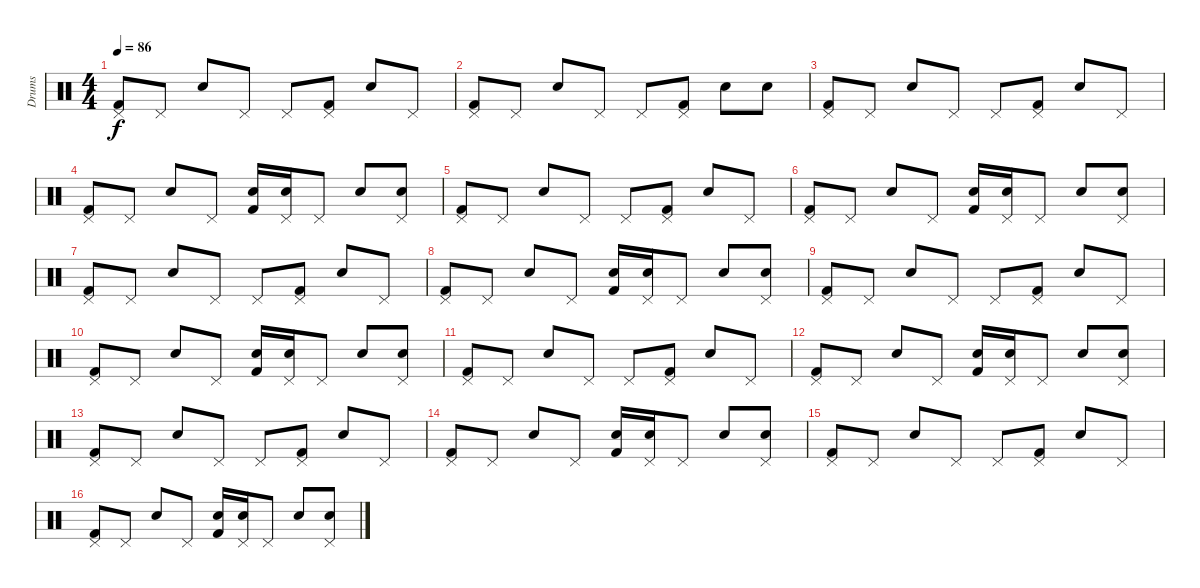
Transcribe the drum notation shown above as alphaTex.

\track ("Drums" "Drums") {instrument percussion}
\staff {score}
\articulation defaults
\ts (4 4)
\tempo 86
\clef neutral
\ks c
("Pedal Hi-Hat (hit)" "Kick (hit) 2").8{dy f} "Pedal Hi-Hat (hit)".8 "Snare (hit) 2".8 "Pedal Hi-Hat (hit)".8 "Pedal Hi-Hat (hit)".8 ("Pedal Hi-Hat (hit)" "Kick (hit) 2").8 "Snare (hit) 2".8 "Pedal Hi-Hat (hit)".8 |
("Pedal Hi-Hat (hit)" "Kick (hit) 2").8 "Pedal Hi-Hat (hit)".8 "Snare (hit) 2".8 "Pedal Hi-Hat (hit)".8 "Pedal Hi-Hat (hit)".8 ("Pedal Hi-Hat (hit)" "Kick (hit) 2").8 "Snare (hit) 2".8 "Snare (hit) 2".8 |
("Pedal Hi-Hat (hit)" "Kick (hit) 2").8 "Pedal Hi-Hat (hit)".8 "Snare (hit) 2".8 "Pedal Hi-Hat (hit)".8 "Pedal Hi-Hat (hit)".8 ("Pedal Hi-Hat (hit)" "Kick (hit) 2").8 "Snare (hit) 2".8 "Pedal Hi-Hat (hit)".8 |
("Pedal Hi-Hat (hit)" "Kick (hit) 2").8 "Pedal Hi-Hat (hit)".8 "Snare (hit) 2".8 "Pedal Hi-Hat (hit)".8 ("Snare (hit) 2" "Kick (hit) 2").16 ("Snare (hit) 2" "Pedal Hi-Hat (hit)").16 "Pedal Hi-Hat (hit)".8 "Snare (hit) 2".8 ("Snare (hit) 2" "Pedal Hi-Hat (hit)").8 |
("Pedal Hi-Hat (hit)" "Kick (hit) 2").8 "Pedal Hi-Hat (hit)".8 "Snare (hit) 2".8 "Pedal Hi-Hat (hit)".8 "Pedal Hi-Hat (hit)".8 ("Pedal Hi-Hat (hit)" "Kick (hit) 2").8 "Snare (hit) 2".8 "Pedal Hi-Hat (hit)".8 |
("Pedal Hi-Hat (hit)" "Kick (hit) 2").8 "Pedal Hi-Hat (hit)".8 "Snare (hit) 2".8 "Pedal Hi-Hat (hit)".8 ("Snare (hit) 2" "Kick (hit) 2").16 ("Snare (hit) 2" "Pedal Hi-Hat (hit)").16 "Pedal Hi-Hat (hit)".8 "Snare (hit) 2".8 ("Snare (hit) 2" "Pedal Hi-Hat (hit)").8 |
("Pedal Hi-Hat (hit)" "Kick (hit) 2").8 "Pedal Hi-Hat (hit)".8 "Snare (hit) 2".8 "Pedal Hi-Hat (hit)".8 "Pedal Hi-Hat (hit)".8 ("Pedal Hi-Hat (hit)" "Kick (hit) 2").8 "Snare (hit) 2".8 "Pedal Hi-Hat (hit)".8 |
("Pedal Hi-Hat (hit)" "Kick (hit) 2").8 "Pedal Hi-Hat (hit)".8 "Snare (hit) 2".8 "Pedal Hi-Hat (hit)".8 ("Snare (hit) 2" "Kick (hit) 2").16 ("Snare (hit) 2" "Pedal Hi-Hat (hit)").16 "Pedal Hi-Hat (hit)".8 "Snare (hit) 2".8 ("Snare (hit) 2" "Pedal Hi-Hat (hit)").8 |
("Pedal Hi-Hat (hit)" "Kick (hit) 2").8 "Pedal Hi-Hat (hit)".8 "Snare (hit) 2".8 "Pedal Hi-Hat (hit)".8 "Pedal Hi-Hat (hit)".8 ("Pedal Hi-Hat (hit)" "Kick (hit) 2").8 "Snare (hit) 2".8 "Pedal Hi-Hat (hit)".8 |
("Pedal Hi-Hat (hit)" "Kick (hit) 2").8 "Pedal Hi-Hat (hit)".8 "Snare (hit) 2".8 "Pedal Hi-Hat (hit)".8 ("Snare (hit) 2" "Kick (hit) 2").16 ("Snare (hit) 2" "Pedal Hi-Hat (hit)").16 "Pedal Hi-Hat (hit)".8 "Snare (hit) 2".8 ("Snare (hit) 2" "Pedal Hi-Hat (hit)").8 |
("Pedal Hi-Hat (hit)" "Kick (hit) 2").8 "Pedal Hi-Hat (hit)".8 "Snare (hit) 2".8 "Pedal Hi-Hat (hit)".8 "Pedal Hi-Hat (hit)".8 ("Pedal Hi-Hat (hit)" "Kick (hit) 2").8 "Snare (hit) 2".8 "Pedal Hi-Hat (hit)".8 |
("Pedal Hi-Hat (hit)" "Kick (hit) 2").8 "Pedal Hi-Hat (hit)".8 "Snare (hit) 2".8 "Pedal Hi-Hat (hit)".8 ("Snare (hit) 2" "Kick (hit) 2").16 ("Snare (hit) 2" "Pedal Hi-Hat (hit)").16 "Pedal Hi-Hat (hit)".8 "Snare (hit) 2".8 ("Snare (hit) 2" "Pedal Hi-Hat (hit)").8 |
("Pedal Hi-Hat (hit)" "Kick (hit) 2").8 "Pedal Hi-Hat (hit)".8 "Snare (hit) 2".8 "Pedal Hi-Hat (hit)".8 "Pedal Hi-Hat (hit)".8 ("Pedal Hi-Hat (hit)" "Kick (hit) 2").8 "Snare (hit) 2".8 "Pedal Hi-Hat (hit)".8 |
("Pedal Hi-Hat (hit)" "Kick (hit) 2").8 "Pedal Hi-Hat (hit)".8 "Snare (hit) 2".8 "Pedal Hi-Hat (hit)".8 ("Snare (hit) 2" "Kick (hit) 2").16 ("Snare (hit) 2" "Pedal Hi-Hat (hit)").16 "Pedal Hi-Hat (hit)".8 "Snare (hit) 2".8 ("Snare (hit) 2" "Pedal Hi-Hat (hit)").8 |
("Pedal Hi-Hat (hit)" "Kick (hit) 2").8 "Pedal Hi-Hat (hit)".8 "Snare (hit) 2".8 "Pedal Hi-Hat (hit)".8 "Pedal Hi-Hat (hit)".8 ("Pedal Hi-Hat (hit)" "Kick (hit) 2").8 "Snare (hit) 2".8 "Pedal Hi-Hat (hit)".8 |
("Pedal Hi-Hat (hit)" "Kick (hit) 2").8 "Pedal Hi-Hat (hit)".8 "Snare (hit) 2".8 "Pedal Hi-Hat (hit)".8 ("Snare (hit) 2" "Kick (hit) 2").16 ("Snare (hit) 2" "Pedal Hi-Hat (hit)").16 "Pedal Hi-Hat (hit)".8 "Snare (hit) 2".8 ("Snare (hit) 2" "Pedal Hi-Hat (hit)").8
